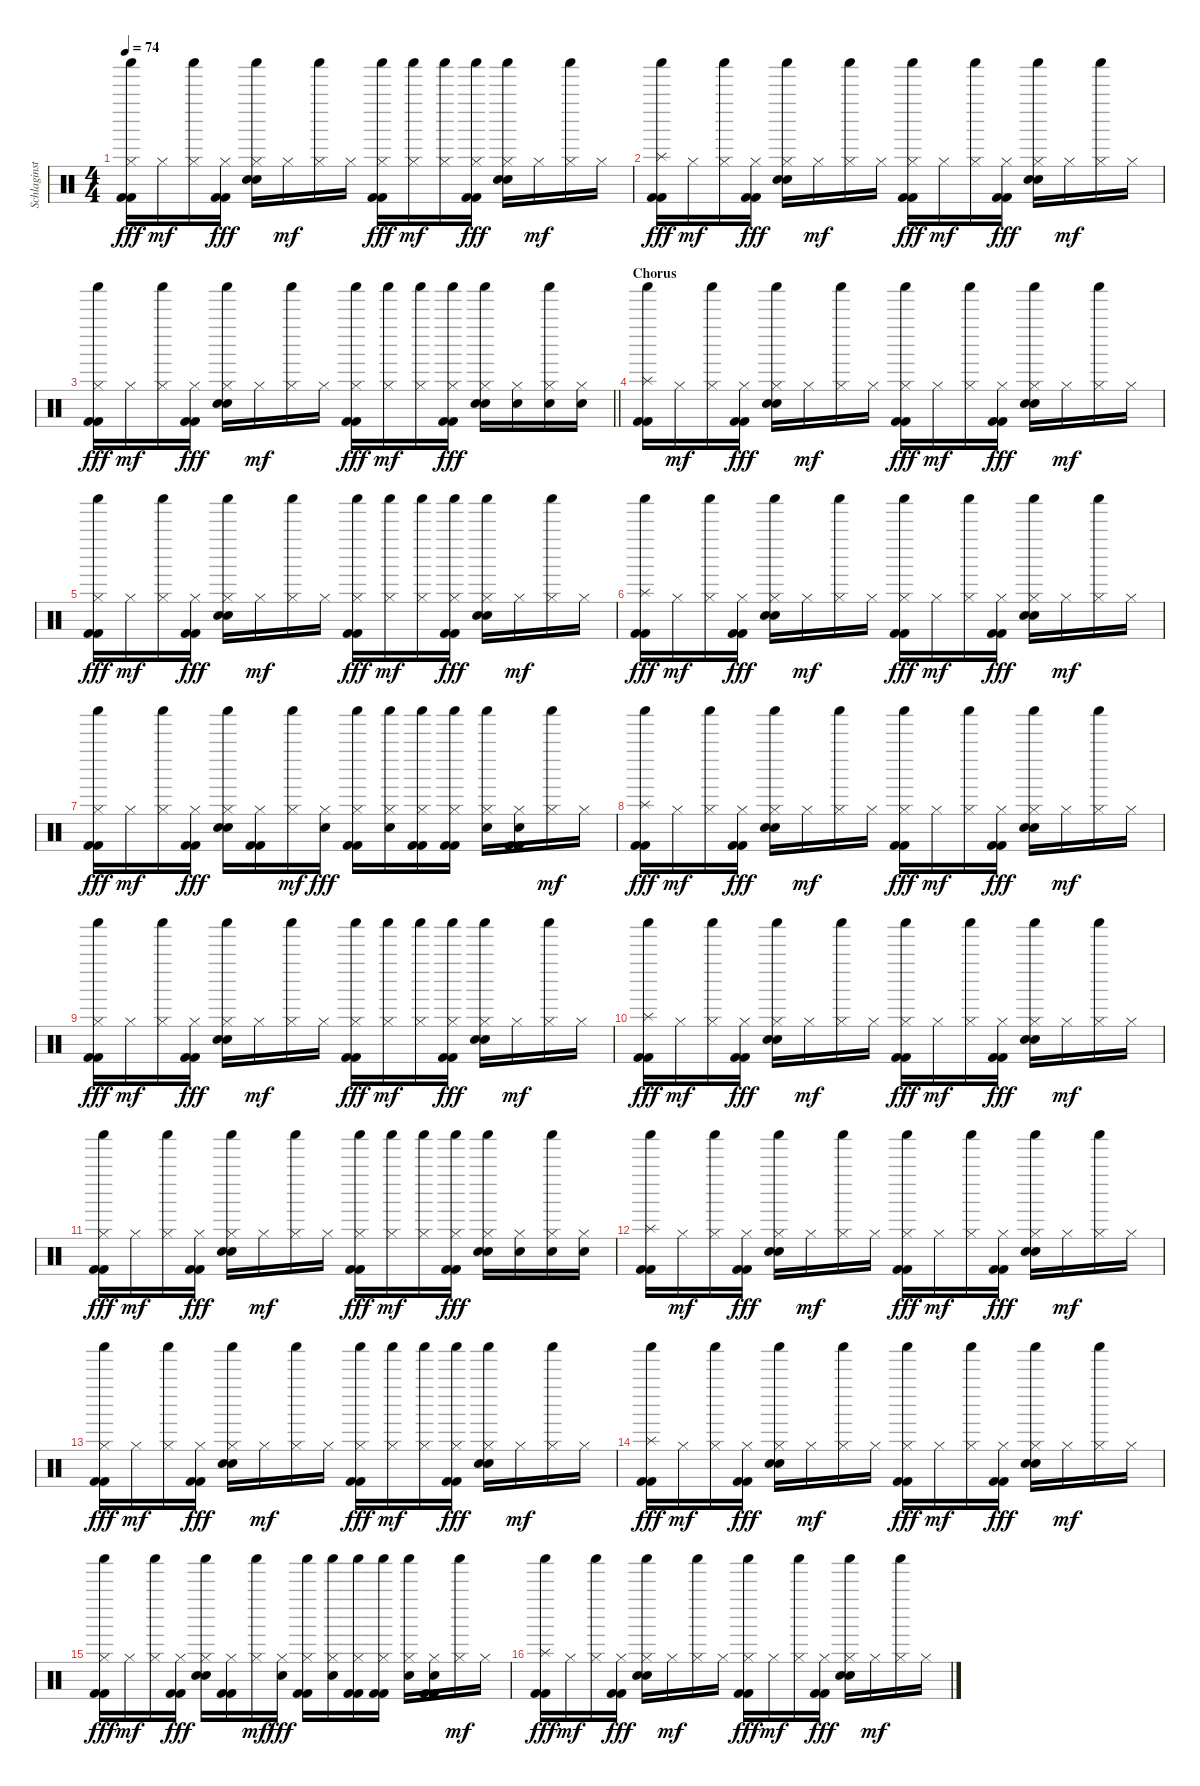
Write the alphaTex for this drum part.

\track ("Schlaginstrumente - Auswahl" "Schlaginst") {instrument percussion}
\staff {score}
\articulation defaults
\ts (4 4)
\tempo 74
\clef neutral
\ks c
("Shaker (hit)" "Hi-Hat (closed)" "Kick (hit) 2" "Kick (hit) 2").16{dy fff} "Hi-Hat (closed)".16{dy mf} ("Shaker (hit)" "Hi-Hat (closed)").16 ("Hi-Hat (closed)" "Kick (hit) 2" "Kick (hit) 2").16{dy fff} ("Shaker (hit)" "Hi-Hat (closed)" "Electric Snare (hit)" "Hand Clap (hit)").16 "Hi-Hat (closed)".16{dy mf} ("Shaker (hit)" "Hi-Hat (closed)").16 "Hi-Hat (closed)".16 ("Shaker (hit)" "Hi-Hat (closed)" "Kick (hit) 2" "Kick (hit) 2").16{dy fff} ("Shaker (hit)" "Hi-Hat (closed)").16{dy mf} ("Shaker (hit)" "Hi-Hat (closed)").16 ("Shaker (hit)" "Hi-Hat (closed)" "Kick (hit) 2" "Kick (hit) 2").16{dy fff} ("Shaker (hit)" "Hi-Hat (closed)" "Electric Snare (hit)" "Hand Clap (hit)").16 "Hi-Hat (closed)".16{dy mf} ("Shaker (hit)" "Hi-Hat (closed)").16 "Hi-Hat (closed)".16 |
("Shaker (hit)" "Splash (hit)" "Kick (hit) 2" "Kick (hit) 2").16{dy fff} "Hi-Hat (closed)".16{dy mf} ("Shaker (hit)" "Hi-Hat (closed)").16 ("Hi-Hat (closed)" "Kick (hit) 2" "Kick (hit) 2").16{dy fff} ("Shaker (hit)" "Hi-Hat (closed)" "Electric Snare (hit)" "Hand Clap (hit)").16 "Hi-Hat (closed)".16{dy mf} ("Shaker (hit)" "Hi-Hat (closed)").16 "Hi-Hat (closed)".16 ("Shaker (hit)" "Hi-Hat (closed)" "Kick (hit) 2" "Kick (hit) 2").16{dy fff} "Hi-Hat (closed)".16{dy mf} ("Shaker (hit)" "Hi-Hat (closed)").16 ("Hi-Hat (closed)" "Kick (hit) 2" "Kick (hit) 2").16{dy fff} ("Shaker (hit)" "Hi-Hat (closed)" "Electric Snare (hit)" "Hand Clap (hit)").16 "Hi-Hat (closed)".16{dy mf} ("Shaker (hit)" "Hi-Hat (closed)").16 "Hi-Hat (closed)".16 |
\barLineRight lightlight
("Shaker (hit)" "Hi-Hat (closed)" "Kick (hit) 2" "Kick (hit) 2").16{dy fff} "Hi-Hat (closed)".16{dy mf} ("Shaker (hit)" "Hi-Hat (closed)").16 ("Hi-Hat (closed)" "Kick (hit) 2" "Kick (hit) 2").16{dy fff} ("Shaker (hit)" "Hi-Hat (closed)" "Electric Snare (hit)" "Hand Clap (hit)").16 "Hi-Hat (closed)".16{dy mf} ("Shaker (hit)" "Hi-Hat (closed)").16 "Hi-Hat (closed)".16 ("Shaker (hit)" "Hi-Hat (closed)" "Kick (hit) 2" "Kick (hit) 2").16{dy fff} ("Shaker (hit)" "Hi-Hat (closed)").16{dy mf} ("Shaker (hit)" "Hi-Hat (closed)").16 ("Shaker (hit)" "Hi-Hat (closed)" "Kick (hit) 2" "Kick (hit) 2").16{dy fff} ("Shaker (hit)" "Hi-Hat (closed)" "Electric Snare (hit)" "Hand Clap (hit)").16 ("Hi-Hat (closed)" "Electric Snare (hit)").16 ("Shaker (hit)" "Hi-Hat (closed)" "Electric Snare (hit)").16 ("Hi-Hat (closed)" "Electric Snare (hit)").16 |
\section ("" "Chorus")
("Shaker (hit)" "Splash (hit)" "Kick (hit) 2" "Kick (hit) 2").16 "Hi-Hat (closed)".16{dy mf} ("Shaker (hit)" "Hi-Hat (closed)").16 ("Hi-Hat (closed)" "Kick (hit) 2" "Kick (hit) 2").16{dy fff} ("Shaker (hit)" "Hi-Hat (closed)" "Electric Snare (hit)" "Hand Clap (hit)").16 "Hi-Hat (closed)".16{dy mf} ("Shaker (hit)" "Hi-Hat (closed)").16 "Hi-Hat (closed)".16 ("Shaker (hit)" "Hi-Hat (closed)" "Kick (hit) 2" "Kick (hit) 2").16{dy fff} "Hi-Hat (closed)".16{dy mf} ("Shaker (hit)" "Hi-Hat (closed)").16 ("Hi-Hat (closed)" "Kick (hit) 2" "Kick (hit) 2").16{dy fff} ("Shaker (hit)" "Hi-Hat (closed)" "Electric Snare (hit)" "Hand Clap (hit)").16 "Hi-Hat (closed)".16{dy mf} ("Shaker (hit)" "Hi-Hat (closed)").16 "Hi-Hat (closed)".16 |
("Shaker (hit)" "Hi-Hat (closed)" "Kick (hit) 2" "Kick (hit) 2").16{dy fff} "Hi-Hat (closed)".16{dy mf} ("Shaker (hit)" "Hi-Hat (closed)").16 ("Hi-Hat (closed)" "Kick (hit) 2" "Kick (hit) 2").16{dy fff} ("Shaker (hit)" "Hi-Hat (closed)" "Electric Snare (hit)" "Hand Clap (hit)").16 "Hi-Hat (closed)".16{dy mf} ("Shaker (hit)" "Hi-Hat (closed)").16 "Hi-Hat (closed)".16 ("Shaker (hit)" "Hi-Hat (closed)" "Kick (hit) 2" "Kick (hit) 2").16{dy fff} ("Shaker (hit)" "Hi-Hat (closed)").16{dy mf} ("Shaker (hit)" "Hi-Hat (closed)").16 ("Shaker (hit)" "Hi-Hat (closed)" "Kick (hit) 2" "Kick (hit) 2").16{dy fff} ("Shaker (hit)" "Hi-Hat (closed)" "Electric Snare (hit)" "Hand Clap (hit)").16 "Hi-Hat (closed)".16{dy mf} ("Shaker (hit)" "Hi-Hat (closed)").16 "Hi-Hat (closed)".16 |
("Shaker (hit)" "Splash (hit)" "Kick (hit) 2" "Kick (hit) 2").16{dy fff} "Hi-Hat (closed)".16{dy mf} ("Shaker (hit)" "Hi-Hat (closed)").16 ("Hi-Hat (closed)" "Kick (hit) 2" "Kick (hit) 2").16{dy fff} ("Shaker (hit)" "Hi-Hat (closed)" "Electric Snare (hit)" "Hand Clap (hit)").16 "Hi-Hat (closed)".16{dy mf} ("Shaker (hit)" "Hi-Hat (closed)").16 "Hi-Hat (closed)".16 ("Shaker (hit)" "Hi-Hat (closed)" "Kick (hit) 2" "Kick (hit) 2").16{dy fff} "Hi-Hat (closed)".16{dy mf} ("Shaker (hit)" "Hi-Hat (closed)").16 ("Hi-Hat (closed)" "Kick (hit) 2" "Kick (hit) 2").16{dy fff} ("Shaker (hit)" "Hi-Hat (closed)" "Electric Snare (hit)" "Hand Clap (hit)").16 "Hi-Hat (closed)".16{dy mf} ("Shaker (hit)" "Hi-Hat (closed)").16 "Hi-Hat (closed)".16 |
("Shaker (hit)" "Hi-Hat (closed)" "Kick (hit) 2" "Kick (hit) 2").16{dy fff} "Hi-Hat (closed)".16{dy mf} ("Shaker (hit)" "Hi-Hat (closed)").16 ("Hi-Hat (closed)" "Kick (hit) 2" "Kick (hit) 2").16{dy fff} ("Shaker (hit)" "Hi-Hat (closed)" "Electric Snare (hit)" "Hand Clap (hit)").16 ("Hi-Hat (closed)" "Kick (hit) 2" "Kick (hit) 2").16 ("Shaker (hit)" "Hi-Hat (closed)").16{dy mf} ("Hi-Hat (closed)" "Electric Snare (hit)").16{dy fff} ("Shaker (hit)" "Hi-Hat (closed)" "Kick (hit) 2" "Kick (hit) 2").16 ("Shaker (hit)" "Hi-Hat (closed)" "Electric Snare (hit)").16 ("Shaker (hit)" "Hi-Hat (closed)" "Kick (hit) 2" "Kick (hit) 2").16 ("Shaker (hit)" "Hi-Hat (closed)" "Kick (hit) 2" "Kick (hit) 2").16 ("Shaker (hit)" "Hi-Hat (closed)" "Electric Snare (hit)").16 ("Hi-Hat (closed)" "Hand Clap (hit)" "Kick (hit) 2" "Kick (hit) 2").16 ("Shaker (hit)" "Hi-Hat (closed)").16{dy mf} "Hi-Hat (closed)".16 |
("Shaker (hit)" "Splash (hit)" "Kick (hit) 2" "Kick (hit) 2").16{dy fff} "Hi-Hat (closed)".16{dy mf} ("Shaker (hit)" "Hi-Hat (closed)").16 ("Hi-Hat (closed)" "Kick (hit) 2" "Kick (hit) 2").16{dy fff} ("Shaker (hit)" "Hi-Hat (closed)" "Electric Snare (hit)" "Hand Clap (hit)").16 "Hi-Hat (closed)".16{dy mf} ("Shaker (hit)" "Hi-Hat (closed)").16 "Hi-Hat (closed)".16 ("Shaker (hit)" "Hi-Hat (closed)" "Kick (hit) 2" "Kick (hit) 2").16{dy fff} "Hi-Hat (closed)".16{dy mf} ("Shaker (hit)" "Hi-Hat (closed)").16 ("Hi-Hat (closed)" "Kick (hit) 2" "Kick (hit) 2").16{dy fff} ("Shaker (hit)" "Hi-Hat (closed)" "Electric Snare (hit)" "Hand Clap (hit)").16 "Hi-Hat (closed)".16{dy mf} ("Shaker (hit)" "Hi-Hat (closed)").16 "Hi-Hat (closed)".16 |
("Shaker (hit)" "Hi-Hat (closed)" "Kick (hit) 2" "Kick (hit) 2").16{dy fff} "Hi-Hat (closed)".16{dy mf} ("Shaker (hit)" "Hi-Hat (closed)").16 ("Hi-Hat (closed)" "Kick (hit) 2" "Kick (hit) 2").16{dy fff} ("Shaker (hit)" "Hi-Hat (closed)" "Electric Snare (hit)" "Hand Clap (hit)").16 "Hi-Hat (closed)".16{dy mf} ("Shaker (hit)" "Hi-Hat (closed)").16 "Hi-Hat (closed)".16 ("Shaker (hit)" "Hi-Hat (closed)" "Kick (hit) 2" "Kick (hit) 2").16{dy fff} ("Shaker (hit)" "Hi-Hat (closed)").16{dy mf} ("Shaker (hit)" "Hi-Hat (closed)").16 ("Shaker (hit)" "Hi-Hat (closed)" "Kick (hit) 2" "Kick (hit) 2").16{dy fff} ("Shaker (hit)" "Hi-Hat (closed)" "Electric Snare (hit)" "Hand Clap (hit)").16 "Hi-Hat (closed)".16{dy mf} ("Shaker (hit)" "Hi-Hat (closed)").16 "Hi-Hat (closed)".16 |
("Shaker (hit)" "Splash (hit)" "Kick (hit) 2" "Kick (hit) 2").16{dy fff} "Hi-Hat (closed)".16{dy mf} ("Shaker (hit)" "Hi-Hat (closed)").16 ("Hi-Hat (closed)" "Kick (hit) 2" "Kick (hit) 2").16{dy fff} ("Shaker (hit)" "Hi-Hat (closed)" "Electric Snare (hit)" "Hand Clap (hit)").16 "Hi-Hat (closed)".16{dy mf} ("Shaker (hit)" "Hi-Hat (closed)").16 "Hi-Hat (closed)".16 ("Shaker (hit)" "Hi-Hat (closed)" "Kick (hit) 2" "Kick (hit) 2").16{dy fff} "Hi-Hat (closed)".16{dy mf} ("Shaker (hit)" "Hi-Hat (closed)").16 ("Hi-Hat (closed)" "Kick (hit) 2" "Kick (hit) 2").16{dy fff} ("Shaker (hit)" "Hi-Hat (closed)" "Electric Snare (hit)" "Hand Clap (hit)").16 "Hi-Hat (closed)".16{dy mf} ("Shaker (hit)" "Hi-Hat (closed)").16 "Hi-Hat (closed)".16 |
("Shaker (hit)" "Hi-Hat (closed)" "Kick (hit) 2" "Kick (hit) 2").16{dy fff} "Hi-Hat (closed)".16{dy mf} ("Shaker (hit)" "Hi-Hat (closed)").16 ("Hi-Hat (closed)" "Kick (hit) 2" "Kick (hit) 2").16{dy fff} ("Shaker (hit)" "Hi-Hat (closed)" "Electric Snare (hit)" "Hand Clap (hit)").16 "Hi-Hat (closed)".16{dy mf} ("Shaker (hit)" "Hi-Hat (closed)").16 "Hi-Hat (closed)".16 ("Shaker (hit)" "Hi-Hat (closed)" "Kick (hit) 2" "Kick (hit) 2").16{dy fff} ("Shaker (hit)" "Hi-Hat (closed)").16{dy mf} ("Shaker (hit)" "Hi-Hat (closed)").16 ("Shaker (hit)" "Hi-Hat (closed)" "Kick (hit) 2" "Kick (hit) 2").16{dy fff} ("Shaker (hit)" "Hi-Hat (closed)" "Electric Snare (hit)" "Hand Clap (hit)").16 ("Hi-Hat (closed)" "Electric Snare (hit)").16 ("Shaker (hit)" "Hi-Hat (closed)" "Electric Snare (hit)").16 ("Hi-Hat (closed)" "Electric Snare (hit)").16 |
("Shaker (hit)" "Splash (hit)" "Kick (hit) 2" "Kick (hit) 2").16 "Hi-Hat (closed)".16{dy mf} ("Shaker (hit)" "Hi-Hat (closed)").16 ("Hi-Hat (closed)" "Kick (hit) 2" "Kick (hit) 2").16{dy fff} ("Shaker (hit)" "Hi-Hat (closed)" "Electric Snare (hit)" "Hand Clap (hit)").16 "Hi-Hat (closed)".16{dy mf} ("Shaker (hit)" "Hi-Hat (closed)").16 "Hi-Hat (closed)".16 ("Shaker (hit)" "Hi-Hat (closed)" "Kick (hit) 2" "Kick (hit) 2").16{dy fff} "Hi-Hat (closed)".16{dy mf} ("Shaker (hit)" "Hi-Hat (closed)").16 ("Hi-Hat (closed)" "Kick (hit) 2" "Kick (hit) 2").16{dy fff} ("Shaker (hit)" "Hi-Hat (closed)" "Electric Snare (hit)" "Hand Clap (hit)").16 "Hi-Hat (closed)".16{dy mf} ("Shaker (hit)" "Hi-Hat (closed)").16 "Hi-Hat (closed)".16 |
("Shaker (hit)" "Hi-Hat (closed)" "Kick (hit) 2" "Kick (hit) 2").16{dy fff} "Hi-Hat (closed)".16{dy mf} ("Shaker (hit)" "Hi-Hat (closed)").16 ("Hi-Hat (closed)" "Kick (hit) 2" "Kick (hit) 2").16{dy fff} ("Shaker (hit)" "Hi-Hat (closed)" "Electric Snare (hit)" "Hand Clap (hit)").16 "Hi-Hat (closed)".16{dy mf} ("Shaker (hit)" "Hi-Hat (closed)").16 "Hi-Hat (closed)".16 ("Shaker (hit)" "Hi-Hat (closed)" "Kick (hit) 2" "Kick (hit) 2").16{dy fff} ("Shaker (hit)" "Hi-Hat (closed)").16{dy mf} ("Shaker (hit)" "Hi-Hat (closed)").16 ("Shaker (hit)" "Hi-Hat (closed)" "Kick (hit) 2" "Kick (hit) 2").16{dy fff} ("Shaker (hit)" "Hi-Hat (closed)" "Electric Snare (hit)" "Hand Clap (hit)").16 "Hi-Hat (closed)".16{dy mf} ("Shaker (hit)" "Hi-Hat (closed)").16 "Hi-Hat (closed)".16 |
("Shaker (hit)" "Splash (hit)" "Kick (hit) 2" "Kick (hit) 2").16{dy fff} "Hi-Hat (closed)".16{dy mf} ("Shaker (hit)" "Hi-Hat (closed)").16 ("Hi-Hat (closed)" "Kick (hit) 2" "Kick (hit) 2").16{dy fff} ("Shaker (hit)" "Hi-Hat (closed)" "Electric Snare (hit)" "Hand Clap (hit)").16 "Hi-Hat (closed)".16{dy mf} ("Shaker (hit)" "Hi-Hat (closed)").16 "Hi-Hat (closed)".16 ("Shaker (hit)" "Hi-Hat (closed)" "Kick (hit) 2" "Kick (hit) 2").16{dy fff} "Hi-Hat (closed)".16{dy mf} ("Shaker (hit)" "Hi-Hat (closed)").16 ("Hi-Hat (closed)" "Kick (hit) 2" "Kick (hit) 2").16{dy fff} ("Shaker (hit)" "Hi-Hat (closed)" "Electric Snare (hit)" "Hand Clap (hit)").16 "Hi-Hat (closed)".16{dy mf} ("Shaker (hit)" "Hi-Hat (closed)").16 "Hi-Hat (closed)".16 |
("Shaker (hit)" "Hi-Hat (closed)" "Kick (hit) 2" "Kick (hit) 2").16{dy fff} "Hi-Hat (closed)".16{dy mf} ("Shaker (hit)" "Hi-Hat (closed)").16 ("Hi-Hat (closed)" "Kick (hit) 2" "Kick (hit) 2").16{dy fff} ("Shaker (hit)" "Hi-Hat (closed)" "Electric Snare (hit)" "Hand Clap (hit)").16 ("Hi-Hat (closed)" "Kick (hit) 2" "Kick (hit) 2").16 ("Shaker (hit)" "Hi-Hat (closed)").16{dy mf} ("Hi-Hat (closed)" "Electric Snare (hit)").16{dy fff} ("Shaker (hit)" "Hi-Hat (closed)" "Kick (hit) 2" "Kick (hit) 2").16 ("Shaker (hit)" "Hi-Hat (closed)" "Electric Snare (hit)").16 ("Shaker (hit)" "Hi-Hat (closed)" "Kick (hit) 2" "Kick (hit) 2").16 ("Shaker (hit)" "Hi-Hat (closed)" "Kick (hit) 2" "Kick (hit) 2").16 ("Shaker (hit)" "Hi-Hat (closed)" "Electric Snare (hit)").16 ("Hi-Hat (closed)" "Hand Clap (hit)" "Kick (hit) 2" "Kick (hit) 2").16 ("Shaker (hit)" "Hi-Hat (closed)").16{dy mf} "Hi-Hat (closed)".16 |
("Shaker (hit)" "Splash (hit)" "Kick (hit) 2" "Kick (hit) 2").16{dy fff} "Hi-Hat (closed)".16{dy mf} ("Shaker (hit)" "Hi-Hat (closed)").16 ("Hi-Hat (closed)" "Kick (hit) 2" "Kick (hit) 2").16{dy fff} ("Shaker (hit)" "Hi-Hat (closed)" "Electric Snare (hit)" "Hand Clap (hit)").16 "Hi-Hat (closed)".16{dy mf} ("Shaker (hit)" "Hi-Hat (closed)").16 "Hi-Hat (closed)".16 ("Shaker (hit)" "Hi-Hat (closed)" "Kick (hit) 2" "Kick (hit) 2").16{dy fff} "Hi-Hat (closed)".16{dy mf} ("Shaker (hit)" "Hi-Hat (closed)").16 ("Hi-Hat (closed)" "Kick (hit) 2" "Kick (hit) 2").16{dy fff} ("Shaker (hit)" "Hi-Hat (closed)" "Electric Snare (hit)" "Hand Clap (hit)").16 "Hi-Hat (closed)".16{dy mf} ("Shaker (hit)" "Hi-Hat (closed)").16 "Hi-Hat (closed)".16
